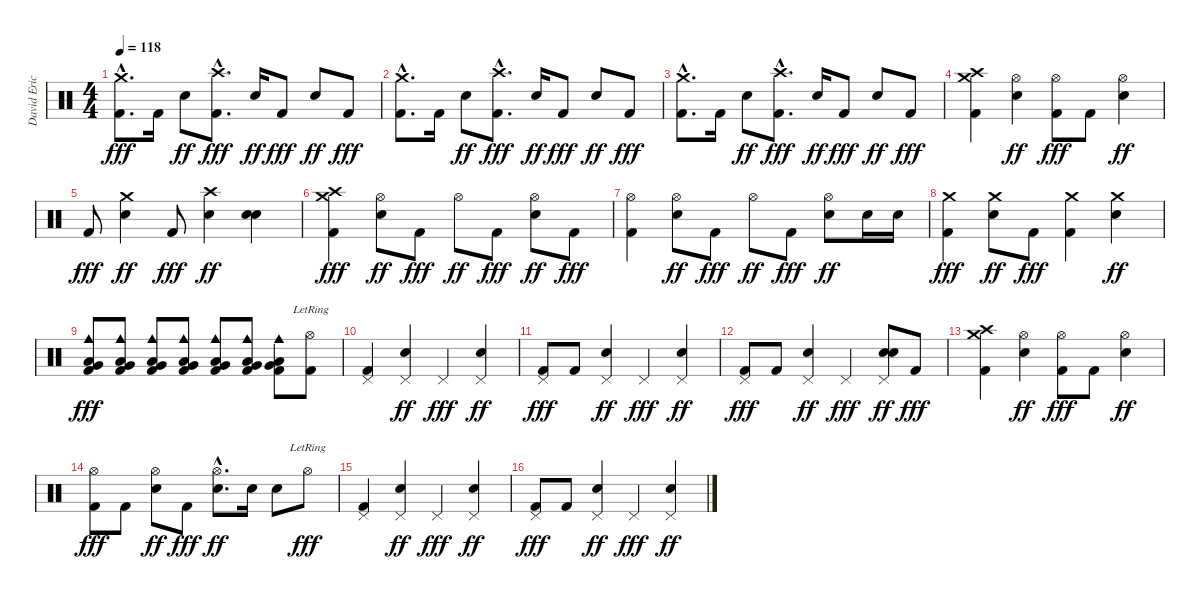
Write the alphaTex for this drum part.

\track ("David Eric Grohl" "David Eric") {instrument percussion}
\staff {score}
\articulation defaults
\ts (4 4)
\tempo 118
\clef neutral
\ks c
("Crash medium (hit)"{hac} "Kick (hit) 2"{hac}).8{d dy fff} "Kick (hit) 2".16 "Electric Snare (hit)".8{dy ff} ("Crash high (hit)"{hac} "Kick (hit) 2"{hac}).8{d dy fff} "Electric Snare (hit)".16{dy ff} "Kick (hit) 2".8{dy fff} "Electric Snare (hit)".8{dy ff} "Kick (hit) 2".8{dy fff} |
("Crash medium (hit)"{hac} "Kick (hit) 2"{hac}).8{d} "Kick (hit) 2".16 "Electric Snare (hit)".8{dy ff} ("Crash high (hit)"{hac} "Kick (hit) 2"{hac}).8{d dy fff} "Electric Snare (hit)".16{dy ff} "Kick (hit) 2".8{dy fff} "Electric Snare (hit)".8{dy ff} "Kick (hit) 2".8{dy fff} |
("Crash medium (hit)"{hac} "Kick (hit) 2"{hac}).8{d} "Kick (hit) 2".16 "Electric Snare (hit)".8{dy ff} ("Crash high (hit)"{hac} "Kick (hit) 2"{hac}).8{d dy fff} "Electric Snare (hit)".16{dy ff} "Kick (hit) 2".8{dy fff} "Electric Snare (hit)".8{dy ff} "Kick (hit) 2".8{dy fff} |
("Crash high (hit)" "Crash medium (hit)" "Kick (hit) 2").4 ("Hi-Hat (open)" "Electric Snare (hit)").4{dy ff} ("Hi-Hat (open)" "Kick (hit) 2").8{dy fff} "Kick (hit) 2".8 ("Hi-Hat (open)" "Electric Snare (hit)").4{dy ff} |
"Kick (hit) 2".8{dy fff} ("Crash medium (hit)" "Electric Snare (hit)").4{dy ff} "Kick (hit) 2".8{dy fff} ("Crash high (hit)" "Electric Snare (hit)").4{dy ff} ("Electric Snare (hit)" "Electric Snare (hit)").4 |
("Crash medium (hit)" "Crash high (hit)" "Kick (hit) 2").4{dy fff} ("Hi-Hat (open)" "Electric Snare (hit)").8{dy ff} "Kick (hit) 2".8{dy fff} "Hi-Hat (open)".8{dy ff} "Kick (hit) 2".8{dy fff} ("Hi-Hat (open)" "Electric Snare (hit)").8{dy ff} "Kick (hit) 2".8{dy fff} |
("Hi-Hat (open)" "Kick (hit) 2").4 ("Hi-Hat (open)" "Electric Snare (hit)").8{dy ff} "Kick (hit) 2".8{dy fff} "Hi-Hat (open)".8{dy ff} "Kick (hit) 2".8{dy fff} ("Hi-Hat (open)" "Electric Snare (hit)").8{dy ff} "Electric Snare (hit)".16 "Electric Snare (hit)".16 |
("Crash medium (hit)" "Kick (hit) 2").4{dy fff} ("Crash medium (hit)" "Electric Snare (hit)").8{dy ff} "Kick (hit) 2".8{dy fff} ("Crash medium (hit)" "Kick (hit) 2").4 ("Crash medium (hit)" "Electric Snare (hit)").4{dy ff} |
("Cowbell medium (hit)" "Low Tom (hit)" "Very Low Tom (hit)" "Kick (hit) 2").8{dy fff} ("Cowbell medium (hit)" "Low Tom (hit)" "Very Low Tom (hit)" "Kick (hit) 2").8 ("Cowbell medium (hit)" "Low Tom (hit)" "Very Low Tom (hit)" "Kick (hit) 2").8 ("Cowbell medium (hit)" "Low Tom (hit)" "Very Low Tom (hit)" "Kick (hit) 2").8 ("Cowbell medium (hit)" "Low Tom (hit)" "Very Low Tom (hit)" "Kick (hit) 2").8 ("Cowbell medium (hit)" "Low Tom (hit)" "Very Low Tom (hit)" "Kick (hit) 2").8 ("Cowbell medium (hit)" "Low Tom (hit)" "Very Low Tom (hit)" "Kick (hit) 2").8 ("Hi-Hat (open)"{lr} "Kick (hit) 2").8 |
("Pedal Hi-Hat (hit)" "Kick (hit) 2").4 ("Pedal Hi-Hat (hit)" "Electric Snare (hit)").4{dy ff} "Pedal Hi-Hat (hit)".4{dy fff} ("Pedal Hi-Hat (hit)" "Electric Snare (hit)").4{dy ff} |
("Pedal Hi-Hat (hit)" "Kick (hit) 2").8{dy fff} "Kick (hit) 2".8 ("Pedal Hi-Hat (hit)" "Electric Snare (hit)").4{dy ff} "Pedal Hi-Hat (hit)".4{dy fff} ("Pedal Hi-Hat (hit)" "Electric Snare (hit)").4{dy ff} |
("Pedal Hi-Hat (hit)" "Kick (hit) 2").8{dy fff} "Kick (hit) 2".8 ("Pedal Hi-Hat (hit)" "Electric Snare (hit)").4{dy ff} "Pedal Hi-Hat (hit)".4{dy fff} ("Pedal Hi-Hat (hit)" "Electric Snare (hit)" "Electric Snare (hit)").8{dy ff} "Kick (hit) 2".8{dy fff} |
("Crash medium (hit)" "Crash high (hit)" "Kick (hit) 2").4 ("Hi-Hat (open)" "Electric Snare (hit)").4{dy ff} ("Hi-Hat (open)" "Kick (hit) 2").8{dy fff} "Kick (hit) 2".8 ("Hi-Hat (open)" "Electric Snare (hit)").4{dy ff} |
("Hi-Hat (open)" "Kick (hit) 2").8{dy fff} "Kick (hit) 2".8 ("Hi-Hat (open)" "Electric Snare (hit)").8{dy ff} "Kick (hit) 2".8{dy fff} ("Hi-Hat (open)"{hac} "Electric Snare (hit)"{hac}).8{d dy ff} "Electric Snare (hit)".16 "Electric Snare (hit)".8 "Hi-Hat (open)"{lr}.8{dy fff} |
("Pedal Hi-Hat (hit)" "Kick (hit) 2").4 ("Pedal Hi-Hat (hit)" "Electric Snare (hit)").4{dy ff} "Pedal Hi-Hat (hit)".4{dy fff} ("Pedal Hi-Hat (hit)" "Electric Snare (hit)").4{dy ff} |
("Pedal Hi-Hat (hit)" "Kick (hit) 2").8{dy fff} "Kick (hit) 2".8 ("Pedal Hi-Hat (hit)" "Electric Snare (hit)").4{dy ff} "Pedal Hi-Hat (hit)".4{dy fff} ("Pedal Hi-Hat (hit)" "Electric Snare (hit)").4{dy ff}
